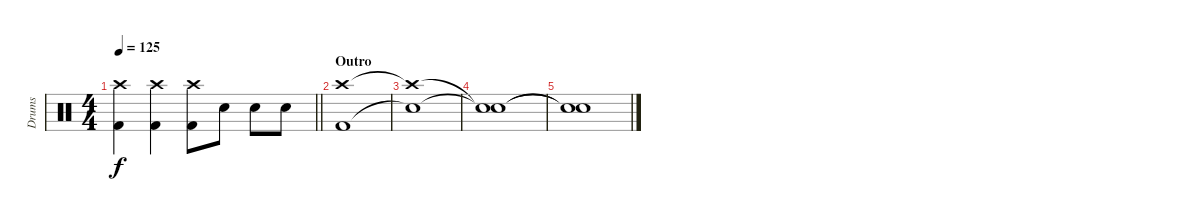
\track ("Drums" "Drums") {instrument percussion}
\staff {score}
\articulation defaults
\ts (4 4)
\tempo 125
\clef neutral
\barLineRight lightlight
\ks c
("Crash high (hit)" "Kick (hit) 2").4{dy f} ("Crash high (hit)" "Kick (hit) 2").4 ("Crash high (hit)" "Kick (hit) 2").8 "Electric Snare (hit)".8 "Electric Snare (hit)".8 "Electric Snare (hit)".8 |
\section ("" "Outro")
("Crash high (hit)" "Kick (hit) 2").1 |
("Crash high (hit)"{t} "Snare (hit)"{t}).1 |
("Snare (hit)"{t} "Snare (hit)"{t}).1 |
("Snare (hit)"{t} "Snare (hit)"{t}).1
